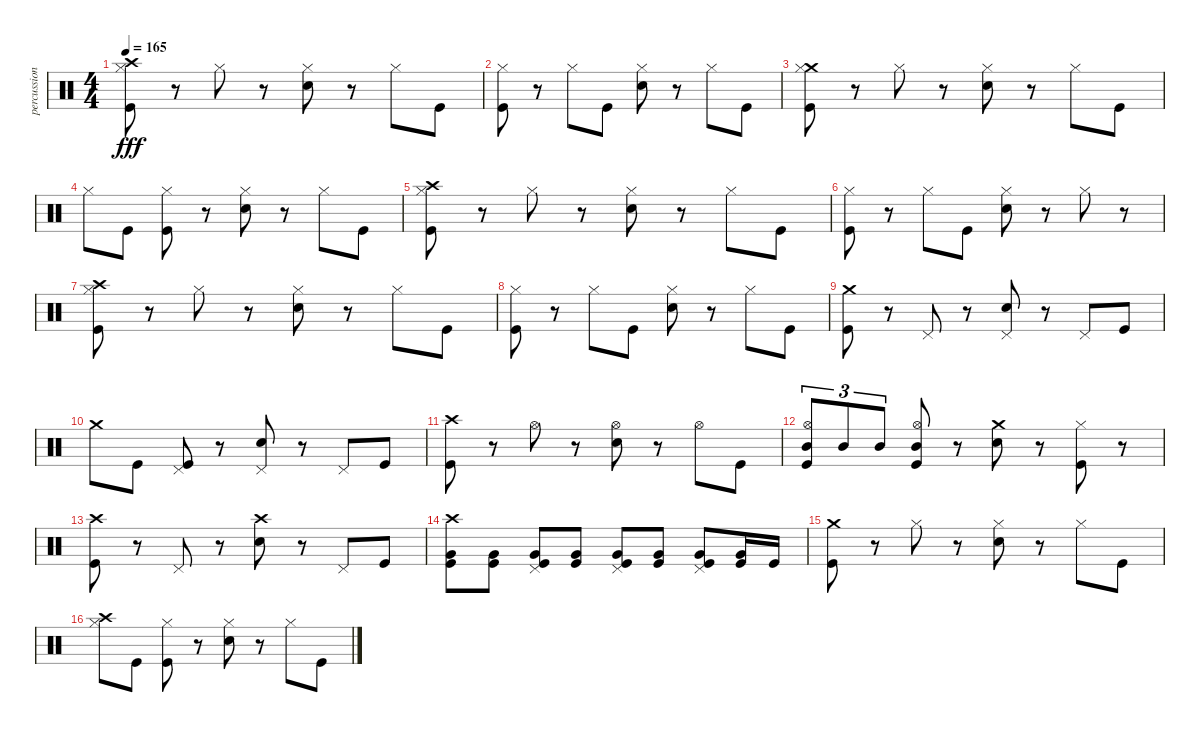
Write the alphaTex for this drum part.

\track ("percussion (Paice)" "percussion") {instrument percussion}
\staff {score}
\articulation defaults
\ts (4 4)
\tempo 165
\clef neutral
\ks c
("Crash high (hit)" "Kick (hit)" "Hi-Hat (closed)").8{dy fff} r.8 "Hi-Hat (closed)".8 r.8 ("Snare (hit) 2" "Hi-Hat (closed)").8 r.8 "Hi-Hat (closed)".8 "Kick (hit)".8 |
("Kick (hit)" "Hi-Hat (closed)").8 r.8 "Hi-Hat (closed)".8 "Kick (hit)".8 ("Snare (hit) 2" "Hi-Hat (closed)").8 r.8 "Hi-Hat (closed)".8 "Kick (hit)".8 |
("Crash medium (hit)" "Kick (hit)" "Hi-Hat (closed)").8 r.8 "Hi-Hat (closed)".8 r.8 ("Snare (hit) 2" "Hi-Hat (closed)").8 r.8 "Hi-Hat (closed)".8 "Kick (hit)".8 |
"Hi-Hat (closed)".8 "Kick (hit)".8 ("Kick (hit)" "Hi-Hat (closed)").8 r.8 ("Snare (hit) 2" "Hi-Hat (closed)").8 r.8 "Hi-Hat (closed)".8 "Kick (hit)".8 |
("Crash high (hit)" "Kick (hit)" "Hi-Hat (closed)").8 r.8 "Hi-Hat (closed)".8 r.8 ("Snare (hit) 2" "Hi-Hat (closed)").8 r.8 "Hi-Hat (closed)".8 "Kick (hit)".8 |
("Kick (hit)" "Hi-Hat (closed)").8 r.8 "Hi-Hat (closed)".8 "Kick (hit)".8 ("Snare (hit) 2" "Hi-Hat (closed)").8 r.8 "Hi-Hat (closed)".8 r.8 |
("Crash high (hit)" "Kick (hit)" "Hi-Hat (closed)").8 r.8 "Hi-Hat (closed)".8 r.8 ("Snare (hit) 2" "Hi-Hat (closed)").8 r.8 "Hi-Hat (closed)".8 "Kick (hit)".8 |
("Kick (hit)" "Hi-Hat (closed)").8 r.8 "Hi-Hat (closed)".8 "Kick (hit)".8 ("Snare (hit) 2" "Hi-Hat (closed)").8 r.8 "Hi-Hat (closed)".8 "Kick (hit)".8 |
("Crash medium (hit)" "Kick (hit)").8 r.8 "Pedal Hi-Hat (hit)".8 r.8 ("Pedal Hi-Hat (hit)" "Snare (hit) 2").8 r.8 "Pedal Hi-Hat (hit)".8 "Kick (hit)".8 |
"Crash medium (hit)".8 "Kick (hit)".8 ("Pedal Hi-Hat (hit)" "Kick (hit)").8 r.8 ("Pedal Hi-Hat (hit)" "Snare (hit) 2").8 r.8 "Pedal Hi-Hat (hit)".8 "Kick (hit)".8 |
("Crash high (hit)" "Kick (hit)").8 r.8 "Hi-Hat (open)".8 r.8 ("Hi-Hat (open)" "Snare (hit) 2").8 r.8 "Hi-Hat (open)".8 "Kick (hit)".8 |
("Hi-Hat (open)" "Mid Tom (hit)" "Kick (hit)").8{tu (3 2)} "Mid Tom (hit)".8{tu (3 2)} "Mid Tom (hit)".8{tu (3 2)} ("Hi-Hat (open)" "Kick (hit)" "Mid Tom (hit)").8 r.8 ("Crash medium (hit)" "Snare (hit) 2").8 r.8 ("Kick (hit)" "Hi-Hat (closed)").8 r.8 |
("Crash high (hit)" "Kick (hit)").8 r.8 "Pedal Hi-Hat (hit)".8 r.8 ("Crash high (hit)" "Snare (hit) 2").8 r.8 "Pedal Hi-Hat (hit)".8 "Kick (hit)".8 |
("Crash high (hit)" "Very Low Tom (hit)" "Kick (hit)").8 ("Kick (hit)" "Very Low Tom (hit)").8 ("Pedal Hi-Hat (hit)" "Kick (hit)" "Very Low Tom (hit)").8 ("Kick (hit)" "Very Low Tom (hit)").8 ("Pedal Hi-Hat (hit)" "Kick (hit)" "Very Low Tom (hit)").8 ("Kick (hit)" "Very Low Tom (hit)").8 ("Pedal Hi-Hat (hit)" "Kick (hit)" "Very Low Tom (hit)").8 ("Kick (hit)" "Very Low Tom (hit)").16 "Kick (hit)".16 |
("Crash medium (hit)" "Kick (hit)").8 r.8 "Hi-Hat (closed)".8 r.8 ("Snare (hit) 2" "Hi-Hat (closed)").8 r.8 "Hi-Hat (closed)".8 "Kick (hit)".8 |
("Crash high (hit)" "Hi-Hat (closed)").8 "Kick (hit)".8 ("Kick (hit)" "Hi-Hat (closed)").8 r.8 ("Snare (hit) 2" "Hi-Hat (closed)").8 r.8 "Hi-Hat (closed)".8 "Kick (hit)".8
